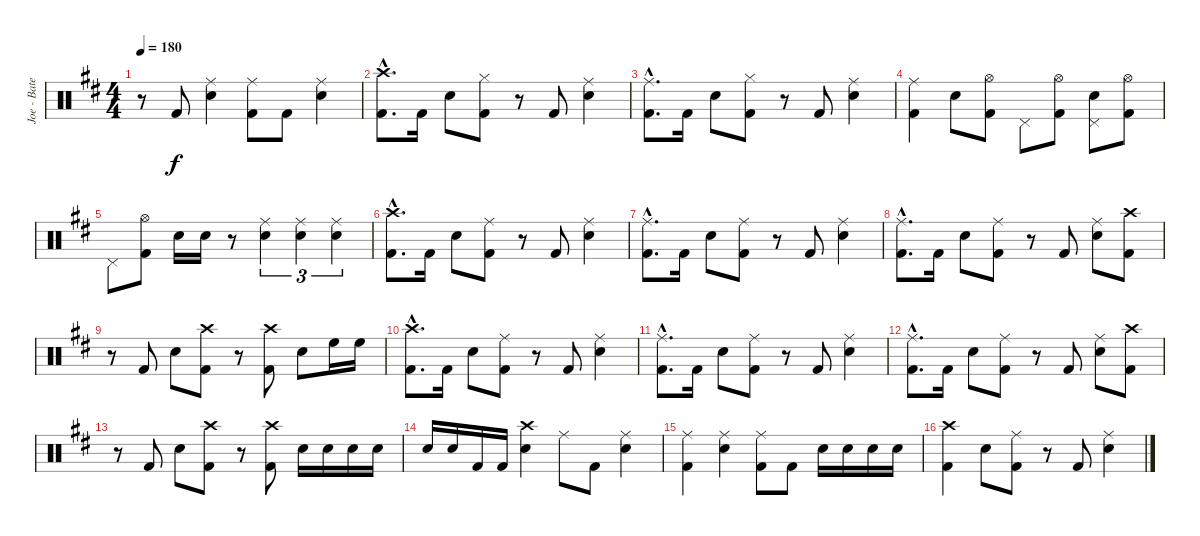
\track ("Joe - Batería -" "Joe - Bate") {instrument percussion}
\staff {score}
\articulation defaults
\ts (4 4)
\tempo 180
\clef neutral
\ks bminor
r.8{dy f} "Kick (hit) 2".8 ("Ride (middle)" "Snare (hit) 2").4 ("Ride (middle)" "Kick (hit) 2").8 "Kick (hit) 2".8 ("Ride (middle)" "Snare (hit) 2").4 |
("Crash high (hit)"{hac} "Kick (hit) 2"{hac}).8{d} "Kick (hit) 2".16 "Snare (hit) 2".8 ("Hi-Hat (closed)" "Kick (hit) 2").8 r.8 "Kick (hit) 2".8 ("Ride (middle)" "Snare (hit) 2").4 |
("Ride (middle)"{hac} "Kick (hit) 2"{hac}).8{d} "Kick (hit) 2".16 "Snare (hit) 2".8 ("Hi-Hat (closed)" "Kick (hit) 2").8 r.8 "Kick (hit) 2".8 ("Ride (middle)" "Snare (hit) 2").4 |
("Ride (middle)" "Kick (hit) 2").4 "Snare (hit) 2".8 ("Hi-Hat (open)" "Kick (hit) 2").8 "Pedal Hi-Hat (hit)".8 ("Hi-Hat (open)" "Kick (hit) 2").8 ("Pedal Hi-Hat (hit)" "Snare (hit) 2").8 ("Hi-Hat (open)" "Kick (hit) 2").8 |
"Pedal Hi-Hat (hit)".8 ("Hi-Hat (open)" "Kick (hit) 2").8 "Snare (hit) 2".16 "Snare (hit) 2".16 r.8 ("Ride (middle)" "Snare (hit) 2").4{tu (3 2)} ("Ride (middle)" "Snare (hit) 2").4{tu (3 2)} ("Ride (middle)" "Snare (hit) 2").4{tu (3 2)} |
("Crash high (hit)"{hac} "Kick (hit) 2"{hac}).8{d} "Kick (hit) 2".16 "Snare (hit) 2".8 ("Ride (middle)" "Kick (hit) 2").8 r.8 "Kick (hit) 2".8 ("Ride (middle)" "Snare (hit) 2").4 |
("Ride (middle)"{hac} "Kick (hit) 2"{hac}).8{d} "Kick (hit) 2".16 "Snare (hit) 2".8 ("Ride (middle)" "Kick (hit) 2").8 r.8 "Kick (hit) 2".8 ("Ride (middle)" "Snare (hit) 2").4 |
("Ride (middle)"{hac} "Kick (hit) 2"{hac}).8{d} "Kick (hit) 2".16 "Snare (hit) 2".8 ("Ride (middle)" "Kick (hit) 2").8 r.8 "Kick (hit) 2".8 ("Ride (middle)" "Snare (hit) 2").8 ("Crash high (hit)" "Kick (hit) 2").8 |
r.8 "Kick (hit) 2".8 "Snare (hit) 2".8 ("Crash high (hit)" "Kick (hit) 2").8 r.8 ("Crash high (hit)" "Kick (hit) 2").8 "Snare (hit) 2".8 "High Floor Tom (hit)".16 "High Floor Tom (hit)".16 |
("Crash high (hit)"{hac} "Kick (hit) 2"{hac}).8{d} "Kick (hit) 2".16 "Snare (hit) 2".8 ("Ride (middle)" "Kick (hit) 2").8 r.8 "Kick (hit) 2".8 ("Ride (middle)" "Snare (hit) 2").4 |
("Ride (middle)"{hac} "Kick (hit) 2"{hac}).8{d} "Kick (hit) 2".16 "Snare (hit) 2".8 ("Ride (middle)" "Kick (hit) 2").8 r.8 "Kick (hit) 2".8 ("Ride (middle)" "Snare (hit) 2").4 |
("Ride (middle)"{hac} "Kick (hit) 2"{hac}).8{d} "Kick (hit) 2".16 "Snare (hit) 2".8 ("Ride (middle)" "Kick (hit) 2").8 r.8 "Kick (hit) 2".8 ("Ride (middle)" "Snare (hit) 2").8 ("Crash high (hit)" "Kick (hit) 2").8 |
r.8 "Kick (hit) 2".8 "Snare (hit) 2".8 ("Crash high (hit)" "Kick (hit) 2").8 r.8 ("Crash high (hit)" "Kick (hit) 2").8 "Snare (hit) 2".16 "Snare (hit) 2".16 "Snare (hit) 2".16 "Snare (hit) 2".16 |
"Snare (hit) 2".16 "Snare (hit) 2".16 "Kick (hit) 2".16 "Kick (hit) 2".16 ("Crash high (hit)" "Snare (hit) 2").4 "Ride (middle)".8 "Kick (hit) 2".8 ("Ride (middle)" "Snare (hit) 2").4 |
("Ride (middle)" "Kick (hit) 2").4 ("Ride (middle)" "Snare (hit) 2").4 ("Ride (middle)" "Kick (hit) 2").8 "Kick (hit) 2".8 "Snare (hit) 2".16 "Snare (hit) 2".16 "Snare (hit) 2".16 "Snare (hit) 2".16 |
("Crash high (hit)" "Kick (hit) 2").4 "Snare (hit) 2".8 ("Ride (middle)" "Kick (hit) 2").8 r.8 "Kick (hit) 2".8 ("Ride (middle)" "Snare (hit) 2").4
